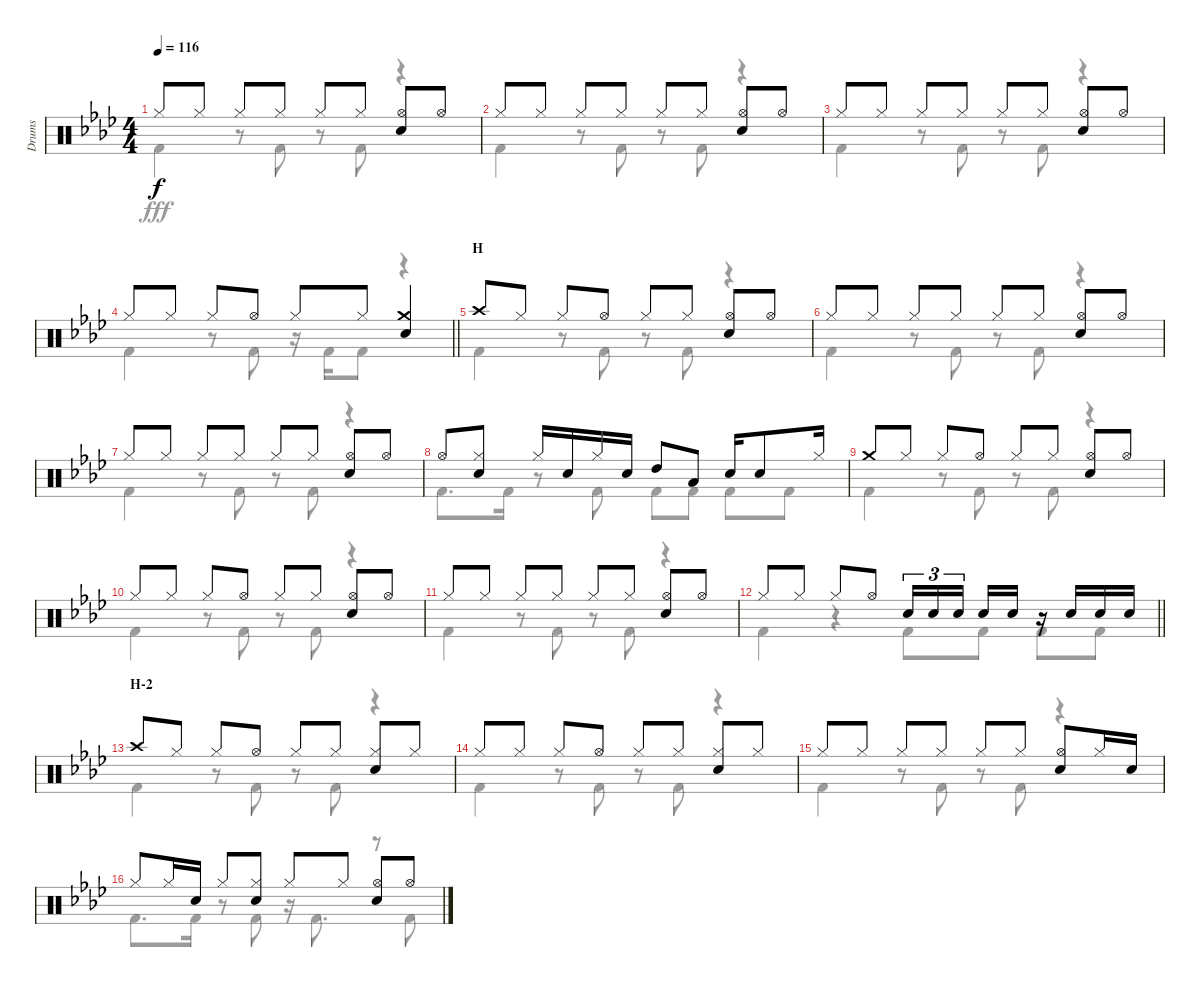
\track ("Drums" "Drums") {instrument percussion}
\staff {score}
\articulation defaults
\voice
\ts (4 4)
\tempo 116
\clef neutral
\ks ab "Hi-Hat (closed)".8{dy f} "Hi-Hat (closed)".8 "Hi-Hat (closed)".8 "Hi-Hat (closed)".8 "Hi-Hat (closed)".8 "Hi-Hat (closed)".8
("Hi-Hat (open)" "Snare (hit) 2").8 "Hi-Hat (open)".8 |
"Hi-Hat (closed)".8 "Hi-Hat (closed)".8 "Hi-Hat (closed)".8 "Hi-Hat (closed)".8 "Hi-Hat (closed)".8 "Hi-Hat (closed)".8 ("Hi-Hat (open)" "Snare (hit) 2").8 "Hi-Hat (open)".8 |
"Hi-Hat (closed)".8 "Hi-Hat (closed)".8 "Hi-Hat (closed)".8 "Hi-Hat (closed)".8 "Hi-Hat (closed)".8 "Hi-Hat (closed)".8 ("Hi-Hat (open)" "Snare (hit) 2").8 "Hi-Hat (open)".8 |
\barLineRight lightlight "Hi-Hat (closed)".8 "Hi-Hat (closed)".8 "Hi-Hat (closed)".8 "Hi-Hat (open)".8 "Hi-Hat (closed)".8 "Hi-Hat (closed)".8
("Crash medium (hit)" "Snare (hit) 2").4 |
\section ("" "H")
"Crash high (hit)".8 "Hi-Hat (closed)".8 "Hi-Hat (closed)".8 "Hi-Hat (open)".8 "Hi-Hat (closed)".8 "Hi-Hat (closed)".8 ("Hi-Hat (open)" "Snare (hit) 2").8 "Hi-Hat (open)".8 |
"Hi-Hat (closed)".8 "Hi-Hat (closed)".8 "Hi-Hat (closed)".8 "Hi-Hat (closed)".8 "Hi-Hat (closed)".8 "Hi-Hat (closed)".8 ("Hi-Hat (open)" "Snare (hit) 2").8 "Hi-Hat (open)".8 |
"Hi-Hat (closed)".8 "Hi-Hat (closed)".8 "Hi-Hat (closed)".8 "Hi-Hat (closed)".8 "Hi-Hat (closed)".8 "Hi-Hat (closed)".8 ("Hi-Hat (open)" "Snare (hit) 2").8 "Hi-Hat (open)".8 |
"Hi-Hat (open)".8 ("Hi-Hat (closed)" "Snare (hit) 2").8 "Hi-Hat (closed)".16 "Snare (hit) 2".16 "Hi-Hat (closed)".16 "Snare (hit) 2".16 "High Tom (hit)".8 "Low Tom (hit)".8 "Snare (hit) 2".16 "Snare (hit) 2".8 "Hi-Hat (closed)".16 |
"Crash medium (hit)".8 "Hi-Hat (closed)".8 "Hi-Hat (closed)".8 "Hi-Hat (open)".8 "Hi-Hat (closed)".8 "Hi-Hat (closed)".8 ("Hi-Hat (open)" "Snare (hit) 2").8 "Hi-Hat (open)".8 |
"Hi-Hat (closed)".8 "Hi-Hat (closed)".8 "Hi-Hat (closed)".8 "Hi-Hat (open)".8 "Hi-Hat (closed)".8 "Hi-Hat (closed)".8 ("Hi-Hat (open)" "Snare (hit) 2").8 "Hi-Hat (open)".8 |
"Hi-Hat (closed)".8 "Hi-Hat (closed)".8 "Hi-Hat (closed)".8 "Hi-Hat (closed)".8 "Hi-Hat (closed)".8 "Hi-Hat (closed)".8 ("Hi-Hat (open)" "Snare (hit) 2").8 "Hi-Hat (open)".8 |
\barLineRight lightlight "Hi-Hat (closed)".8 "Hi-Hat (closed)".8 "Hi-Hat (closed)".8 "Hi-Hat (open)".8 "Snare (hit) 2".16{tu (3 2)} "Snare (hit) 2".16{tu (3 2)} "Snare (hit) 2".16{tu (3 2) beam splitsecondary} "Snare (hit) 2".16 "Snare (hit) 2".16
r.16 "Snare (hit) 2".16 "Snare (hit) 2".16 "Snare (hit) 2".16 |
\section ("" "H-2")
"Crash high (hit)".8 "Hi-Hat (closed)".8 "Hi-Hat (closed)".8 "Hi-Hat (open)".8 "Hi-Hat (closed)".8 "Hi-Hat (closed)".8 ("Hi-Hat (closed)" "Snare (hit) 2").8 "Hi-Hat (closed)".8 |
"Hi-Hat (closed)".8 "Hi-Hat (closed)".8 "Hi-Hat (closed)".8 "Hi-Hat (open)".8 "Hi-Hat (closed)".8 "Hi-Hat (closed)".8 ("Hi-Hat (closed)" "Snare (hit) 2").8 "Hi-Hat (closed)".8 |
"Hi-Hat (closed)".8 "Hi-Hat (closed)".8 "Hi-Hat (closed)".8 "Hi-Hat (closed)".8 "Hi-Hat (closed)".8 "Hi-Hat (closed)".8 ("Hi-Hat (open)" "Snare (hit) 2").8 "Hi-Hat (closed)".16 "Snare (hit) 2".16 |
"Hi-Hat (closed)".8 "Hi-Hat (closed)".16 "Snare (hit) 2".16 "Hi-Hat (closed)".8 ("Hi-Hat (closed)" "Snare (hit) 2").8 "Hi-Hat (closed)".8 "Hi-Hat (closed)".8 ("Hi-Hat (open)" "Snare (hit) 2").8 "Hi-Hat (open)".8
\voice
\clef neutral
\ottava regular
\simile none
\ks ab "Kick (hit) 2".4{dy fff}
r.8 "Kick (hit) 2".8 r.8 "Kick (hit) 2".8 r.4 |
"Kick (hit) 2".4 r.8 "Kick (hit) 2".8 r.8 "Kick (hit) 2".8 r.4 |
"Kick (hit) 2".4 r.8 "Kick (hit) 2".8 r.8 "Kick (hit) 2".8 r.4 |
\barLineRight lightlight "Kick (hit) 2".4
r.8 "Kick (hit) 2".8 r.16 "Kick (hit) 2".16 "Kick (hit) 2".8 r.4 |
"Kick (hit) 2".4 r.8 "Kick (hit) 2".8 r.8 "Kick (hit) 2".8 r.4 |
"Kick (hit) 2".4 r.8 "Kick (hit) 2".8 r.8 "Kick (hit) 2".8 r.4 |
"Kick (hit) 2".4 r.8 "Kick (hit) 2".8 r.8 "Kick (hit) 2".8 r.4 |
"Kick (hit) 2".8{d} "Kick (hit) 2".16 r.8 "Kick (hit) 2".8 "Kick (hit) 2".8 "Kick (hit) 2".8 "Kick (hit) 2".8 "Kick (hit) 2".8 |
"Kick (hit) 2".4 r.8 "Kick (hit) 2".8 r.8 "Kick (hit) 2".8 r.4 |
"Kick (hit) 2".4 r.8 "Kick (hit) 2".8 r.8 "Kick (hit) 2".8 r.4 |
"Kick (hit) 2".4 r.8 "Kick (hit) 2".8 r.8 "Kick (hit) 2".8 r.4 |
\barLineRight lightlight "Kick (hit) 2".4
r.4 "Kick (hit) 2".8 "Kick (hit) 2".8 "Kick (hit) 2".8 "Kick (hit) 2".8 |
"Kick (hit) 2".4 r.8 "Kick (hit) 2".8 r.8 "Kick (hit) 2".8 r.4 |
"Kick (hit) 2".4 r.8 "Kick (hit) 2".8 r.8 "Kick (hit) 2".8 r.4 |
"Kick (hit) 2".4 r.8 "Kick (hit) 2".8 r.8 "Kick (hit) 2".8 r.4 |
"Kick (hit) 2".8{d} "Kick (hit) 2".16 r.8 "Kick (hit) 2".8 r.16 "Kick (hit) 2".8{d} r.8 "Kick (hit) 2".8
